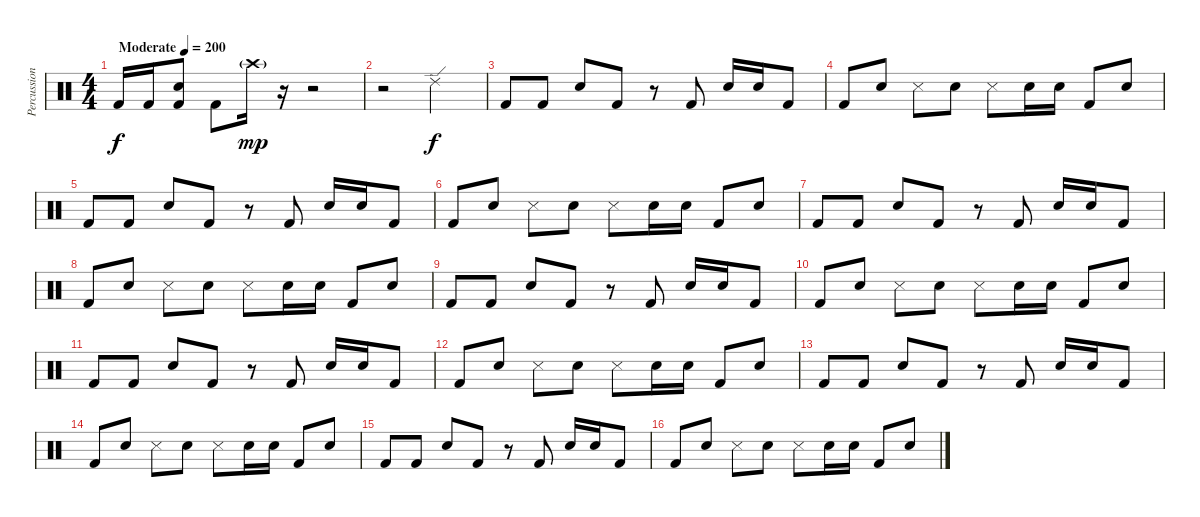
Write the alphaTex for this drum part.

\track ("Percussion" "Percussion") {instrument percussion}
\staff {score}
\articulation defaults
\ts (4 4)
\tempo (200 "Moderate")
\clef neutral
\ks c "Kick (hit) 2".16{dy f} "Kick (hit) 2".16
("Electric Snare (hit)" "Kick (hit) 2").8 "Kick (hit) 2".8 "Crash high (hit)"{g}.16{dy mp} r.16{volume 0} r.2 |
r.2 "Ride (edge) 2".2{dy f volume 16} |
"Kick (hit) 2".8 "Kick (hit) 2".8 "Electric Snare (hit)".8 "Kick (hit) 2".8 r.8 "Kick (hit) 2".8 "Electric Snare (hit)".16 "Electric Snare (hit)".16 "Kick (hit) 2".8 |
"Kick (hit) 2".8 "Electric Snare (hit)".8 "Snare (side stick) 3".8 "Electric Snare (hit)".8 "Snare (side stick) 3".8 "Electric Snare (hit)".16 "Electric Snare (hit)".16 "Kick (hit) 2".8 "Electric Snare (hit)".8 |
"Kick (hit) 2".8 "Kick (hit) 2".8 "Electric Snare (hit)".8 "Kick (hit) 2".8 r.8 "Kick (hit) 2".8 "Electric Snare (hit)".16 "Electric Snare (hit)".16 "Kick (hit) 2".8 |
"Kick (hit) 2".8 "Electric Snare (hit)".8 "Snare (side stick) 3".8 "Electric Snare (hit)".8 "Snare (side stick) 3".8 "Electric Snare (hit)".16 "Electric Snare (hit)".16 "Kick (hit) 2".8 "Electric Snare (hit)".8 |
"Kick (hit) 2".8 "Kick (hit) 2".8 "Electric Snare (hit)".8 "Kick (hit) 2".8 r.8 "Kick (hit) 2".8 "Electric Snare (hit)".16 "Electric Snare (hit)".16 "Kick (hit) 2".8 |
"Kick (hit) 2".8 "Electric Snare (hit)".8 "Snare (side stick) 3".8 "Electric Snare (hit)".8 "Snare (side stick) 3".8 "Electric Snare (hit)".16 "Electric Snare (hit)".16 "Kick (hit) 2".8 "Electric Snare (hit)".8 |
"Kick (hit) 2".8 "Kick (hit) 2".8 "Electric Snare (hit)".8 "Kick (hit) 2".8 r.8 "Kick (hit) 2".8 "Electric Snare (hit)".16 "Electric Snare (hit)".16 "Kick (hit) 2".8 |
"Kick (hit) 2".8 "Electric Snare (hit)".8 "Snare (side stick) 3".8 "Electric Snare (hit)".8 "Snare (side stick) 3".8 "Electric Snare (hit)".16 "Electric Snare (hit)".16 "Kick (hit) 2".8 "Electric Snare (hit)".8 |
"Kick (hit) 2".8 "Kick (hit) 2".8 "Electric Snare (hit)".8 "Kick (hit) 2".8 r.8 "Kick (hit) 2".8 "Electric Snare (hit)".16 "Electric Snare (hit)".16 "Kick (hit) 2".8 |
"Kick (hit) 2".8 "Electric Snare (hit)".8 "Snare (side stick) 3".8 "Electric Snare (hit)".8 "Snare (side stick) 3".8 "Electric Snare (hit)".16 "Electric Snare (hit)".16 "Kick (hit) 2".8 "Electric Snare (hit)".8 |
"Kick (hit) 2".8 "Kick (hit) 2".8 "Electric Snare (hit)".8 "Kick (hit) 2".8 r.8 "Kick (hit) 2".8 "Electric Snare (hit)".16 "Electric Snare (hit)".16 "Kick (hit) 2".8 |
"Kick (hit) 2".8 "Electric Snare (hit)".8 "Snare (side stick) 3".8 "Electric Snare (hit)".8 "Snare (side stick) 3".8 "Electric Snare (hit)".16 "Electric Snare (hit)".16 "Kick (hit) 2".8 "Electric Snare (hit)".8 |
"Kick (hit) 2".8 "Kick (hit) 2".8 "Electric Snare (hit)".8 "Kick (hit) 2".8 r.8 "Kick (hit) 2".8 "Electric Snare (hit)".16 "Electric Snare (hit)".16 "Kick (hit) 2".8 |
"Kick (hit) 2".8 "Electric Snare (hit)".8 "Snare (side stick) 3".8 "Electric Snare (hit)".8 "Snare (side stick) 3".8 "Electric Snare (hit)".16 "Electric Snare (hit)".16 "Kick (hit) 2".8 "Electric Snare (hit)".8
